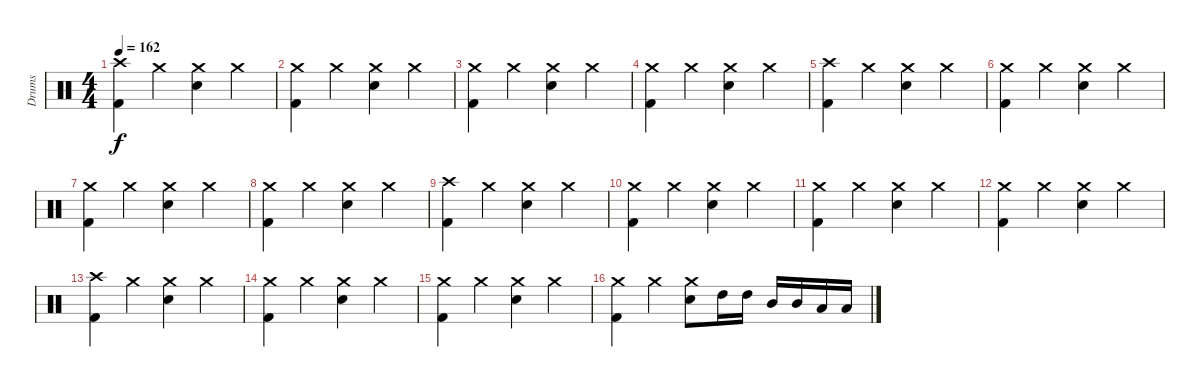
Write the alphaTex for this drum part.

\track ("Drums" "Drums") {instrument percussion}
\staff {score}
\articulation defaults
\ts (4 4)
\tempo 162
\clef neutral
\ks c
("Crash high (hit)" "Kick (hit) 2").4{dy f} "Crash medium (hit)".4 ("Crash medium (hit)" "Snare (hit) 2").4 "Crash medium (hit)".4 |
("Crash medium (hit)" "Kick (hit) 2").4 "Crash medium (hit)".4 ("Crash medium (hit)" "Snare (hit) 2").4 "Crash medium (hit)".4 |
("Crash medium (hit)" "Kick (hit) 2").4 "Crash medium (hit)".4 ("Crash medium (hit)" "Snare (hit) 2").4 "Crash medium (hit)".4 |
("Crash medium (hit)" "Kick (hit) 2").4 "Crash medium (hit)".4 ("Crash medium (hit)" "Snare (hit) 2").4 "Crash medium (hit)".4 |
("Crash high (hit)" "Kick (hit) 2").4 "Crash medium (hit)".4 ("Crash medium (hit)" "Snare (hit) 2").4 "Crash medium (hit)".4 |
("Crash medium (hit)" "Kick (hit) 2").4 "Crash medium (hit)".4 ("Crash medium (hit)" "Snare (hit) 2").4 "Crash medium (hit)".4 |
("Crash medium (hit)" "Kick (hit) 2").4 "Crash medium (hit)".4 ("Crash medium (hit)" "Snare (hit) 2").4 "Crash medium (hit)".4 |
("Crash medium (hit)" "Kick (hit) 2").4 "Crash medium (hit)".4 ("Crash medium (hit)" "Snare (hit) 2").4 "Crash medium (hit)".4 |
("Crash high (hit)" "Kick (hit) 2").4 "Crash medium (hit)".4 ("Crash medium (hit)" "Snare (hit) 2").4 "Crash medium (hit)".4 |
("Crash medium (hit)" "Kick (hit) 2").4 "Crash medium (hit)".4 ("Crash medium (hit)" "Snare (hit) 2").4 "Crash medium (hit)".4 |
("Crash medium (hit)" "Kick (hit) 2").4 "Crash medium (hit)".4 ("Crash medium (hit)" "Snare (hit) 2").4 "Crash medium (hit)".4 |
("Crash medium (hit)" "Kick (hit) 2").4 "Crash medium (hit)".4 ("Crash medium (hit)" "Snare (hit) 2").4 "Crash medium (hit)".4 |
("Crash high (hit)" "Kick (hit) 2").4 "Crash medium (hit)".4 ("Crash medium (hit)" "Snare (hit) 2").4 "Crash medium (hit)".4 |
("Crash medium (hit)" "Kick (hit) 2").4 "Crash medium (hit)".4 ("Crash medium (hit)" "Snare (hit) 2").4 "Crash medium (hit)".4 |
("Crash medium (hit)" "Kick (hit) 2").4 "Crash medium (hit)".4 ("Crash medium (hit)" "Snare (hit) 2").4 "Crash medium (hit)".4 |
("Crash medium (hit)" "Kick (hit) 2").4 "Crash medium (hit)".4 ("Crash medium (hit)" "Snare (hit) 2").8 "High Tom (hit)".16 "High Tom (hit)".16 "Mid Tom (hit)".16 "Mid Tom (hit)".16 "Low Tom (hit)".16 "Low Tom (hit)".16
